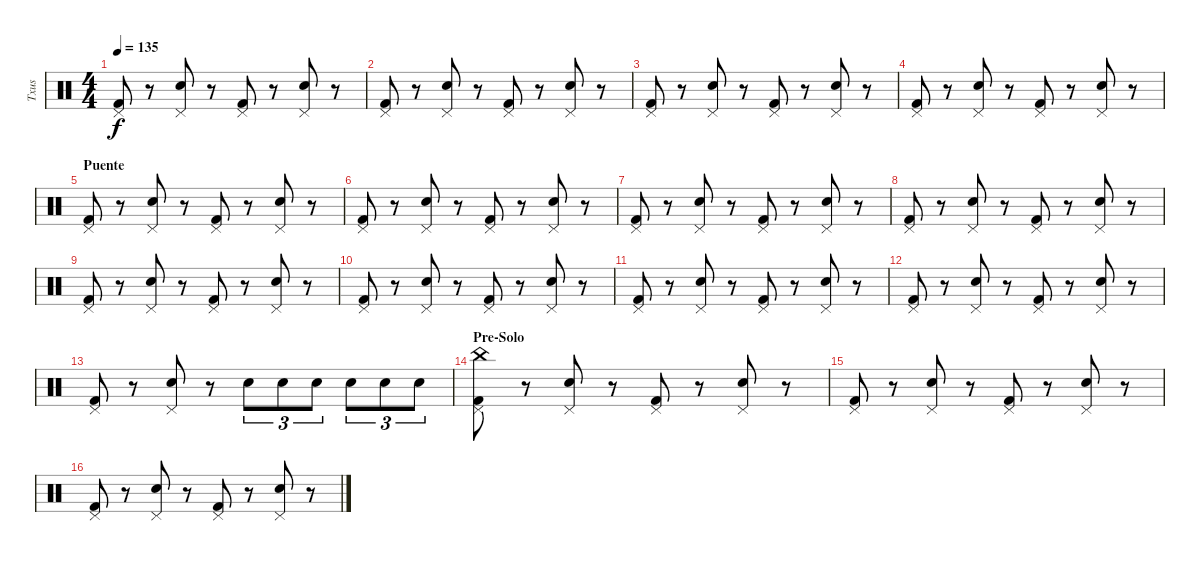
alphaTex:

\track ("Txus" "Txus") {instrument percussion}
\staff {score}
\articulation defaults
\ts (4 4)
\tempo 135
\clef neutral
\ks c
("Pedal Hi-Hat (hit)" "Kick (hit) 2").8{dy f} r.8 ("Pedal Hi-Hat (hit)" "Snare (hit) 2").8 r.8 ("Pedal Hi-Hat (hit)" "Kick (hit) 2").8 r.8 ("Pedal Hi-Hat (hit)" "Snare (hit) 2").8 r.8 |
("Pedal Hi-Hat (hit)" "Kick (hit) 2").8 r.8 ("Pedal Hi-Hat (hit)" "Snare (hit) 2").8 r.8 ("Pedal Hi-Hat (hit)" "Kick (hit) 2").8 r.8 ("Pedal Hi-Hat (hit)" "Snare (hit) 2").8 r.8 |
("Pedal Hi-Hat (hit)" "Kick (hit) 2").8 r.8 ("Pedal Hi-Hat (hit)" "Snare (hit) 2").8 r.8 ("Pedal Hi-Hat (hit)" "Kick (hit) 2").8 r.8 ("Pedal Hi-Hat (hit)" "Snare (hit) 2").8 r.8 |
("Pedal Hi-Hat (hit)" "Kick (hit) 2").8 r.8 ("Pedal Hi-Hat (hit)" "Snare (hit) 2").8 r.8 ("Pedal Hi-Hat (hit)" "Kick (hit) 2").8 r.8 ("Pedal Hi-Hat (hit)" "Snare (hit) 2").8 r.8 |
\section ("" "Puente")
("Pedal Hi-Hat (hit)" "Kick (hit) 2").8 r.8 ("Pedal Hi-Hat (hit)" "Snare (hit) 2").8 r.8 ("Pedal Hi-Hat (hit)" "Kick (hit) 2").8 r.8 ("Pedal Hi-Hat (hit)" "Snare (hit) 2").8 r.8 |
("Pedal Hi-Hat (hit)" "Kick (hit) 2").8 r.8 ("Pedal Hi-Hat (hit)" "Snare (hit) 2").8 r.8 ("Pedal Hi-Hat (hit)" "Kick (hit) 2").8 r.8 ("Pedal Hi-Hat (hit)" "Snare (hit) 2").8 r.8 |
("Pedal Hi-Hat (hit)" "Kick (hit) 2").8 r.8 ("Pedal Hi-Hat (hit)" "Snare (hit) 2").8 r.8 ("Pedal Hi-Hat (hit)" "Kick (hit) 2").8 r.8 ("Pedal Hi-Hat (hit)" "Snare (hit) 2").8 r.8 |
("Pedal Hi-Hat (hit)" "Kick (hit) 2").8 r.8 ("Pedal Hi-Hat (hit)" "Snare (hit) 2").8 r.8 ("Pedal Hi-Hat (hit)" "Kick (hit) 2").8 r.8 ("Pedal Hi-Hat (hit)" "Snare (hit) 2").8 r.8 |
("Pedal Hi-Hat (hit)" "Kick (hit) 2").8 r.8 ("Pedal Hi-Hat (hit)" "Snare (hit) 2").8 r.8 ("Pedal Hi-Hat (hit)" "Kick (hit) 2").8 r.8 ("Pedal Hi-Hat (hit)" "Snare (hit) 2").8 r.8 |
("Pedal Hi-Hat (hit)" "Kick (hit) 2").8 r.8 ("Pedal Hi-Hat (hit)" "Snare (hit) 2").8 r.8 ("Pedal Hi-Hat (hit)" "Kick (hit) 2").8 r.8 ("Pedal Hi-Hat (hit)" "Snare (hit) 2").8 r.8 |
("Pedal Hi-Hat (hit)" "Kick (hit) 2").8 r.8 ("Pedal Hi-Hat (hit)" "Snare (hit) 2").8 r.8 ("Pedal Hi-Hat (hit)" "Kick (hit) 2").8 r.8 ("Pedal Hi-Hat (hit)" "Snare (hit) 2").8 r.8 |
("Pedal Hi-Hat (hit)" "Kick (hit) 2").8 r.8 ("Pedal Hi-Hat (hit)" "Snare (hit) 2").8 r.8 ("Pedal Hi-Hat (hit)" "Kick (hit) 2").8 r.8 ("Pedal Hi-Hat (hit)" "Snare (hit) 2").8 r.8 |
("Pedal Hi-Hat (hit)" "Kick (hit) 2").8 r.8 ("Pedal Hi-Hat (hit)" "Snare (hit) 2").8 r.8 "Snare (hit) 2".8{tu (3 2)} "Snare (hit) 2".8{tu (3 2)} "Snare (hit) 2".8{tu (3 2)} "Snare (hit) 2".8{tu (3 2)} "Snare (hit) 2".8{tu (3 2)} "Snare (hit) 2".8{tu (3 2)} |
\section ("" "Pre-Solo")
("Pedal Hi-Hat (hit)" "Kick (hit) 2" "China (hit)").8 r.8 ("Pedal Hi-Hat (hit)" "Snare (hit) 2").8 r.8 ("Pedal Hi-Hat (hit)" "Kick (hit) 2").8 r.8 ("Pedal Hi-Hat (hit)" "Snare (hit) 2").8 r.8 |
("Pedal Hi-Hat (hit)" "Kick (hit) 2").8 r.8 ("Pedal Hi-Hat (hit)" "Snare (hit) 2").8 r.8 ("Pedal Hi-Hat (hit)" "Kick (hit) 2").8 r.8 ("Pedal Hi-Hat (hit)" "Snare (hit) 2").8 r.8 |
("Pedal Hi-Hat (hit)" "Kick (hit) 2").8 r.8 ("Pedal Hi-Hat (hit)" "Snare (hit) 2").8 r.8 ("Pedal Hi-Hat (hit)" "Kick (hit) 2").8 r.8 ("Pedal Hi-Hat (hit)" "Snare (hit) 2").8 r.8
